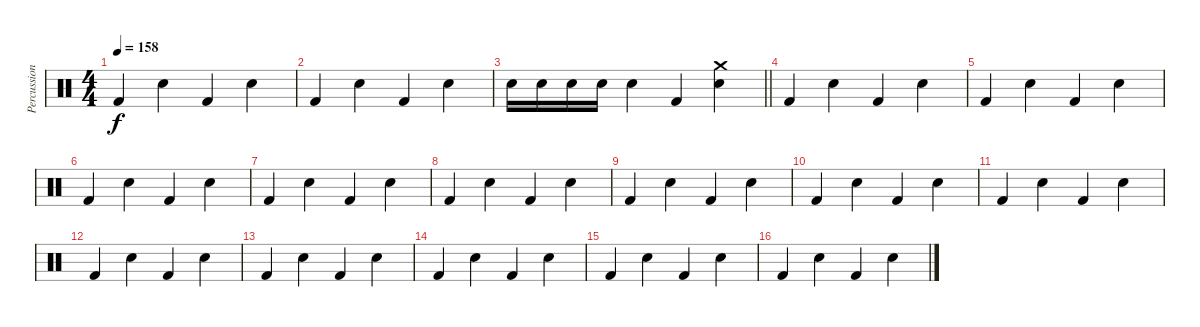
\track ("Percussions" "Percussion") {instrument percussion}
\staff {score}
\articulation defaults
\ts (4 4)
\tempo 158
\clef neutral
\ks c "Kick (hit) 2".4{dy f} "Electric Snare (hit)".4 "Kick (hit) 2".4 "Electric Snare (hit)".4
|
"Kick (hit) 2".4{volume 16} "Electric Snare (hit)".4 "Kick (hit) 2".4 "Electric Snare (hit)".4 |
\barLineRight lightlight "Electric Snare (hit)".16 "Electric Snare (hit)".16 "Electric Snare (hit)".16 "Electric Snare (hit)".16 "Electric Snare (hit)".4 "Kick (hit) 2".4
("Crash medium (hit)" "Electric Snare (hit)").4 |
"Kick (hit) 2".4{volume 16} "Electric Snare (hit)".4 "Kick (hit) 2".4 "Electric Snare (hit)".4 |
"Kick (hit) 2".4 "Electric Snare (hit)".4 "Kick (hit) 2".4 "Electric Snare (hit)".4 |
"Kick (hit) 2".4{volume 16} "Electric Snare (hit)".4 "Kick (hit) 2".4 "Electric Snare (hit)".4 |
"Kick (hit) 2".4 "Electric Snare (hit)".4 "Kick (hit) 2".4 "Electric Snare (hit)".4 |
"Kick (hit) 2".4{volume 16} "Electric Snare (hit)".4 "Kick (hit) 2".4 "Electric Snare (hit)".4 |
"Kick (hit) 2".4 "Electric Snare (hit)".4 "Kick (hit) 2".4 "Electric Snare (hit)".4 |
"Kick (hit) 2".4{volume 16} "Electric Snare (hit)".4 "Kick (hit) 2".4 "Electric Snare (hit)".4 |
"Kick (hit) 2".4 "Electric Snare (hit)".4 "Kick (hit) 2".4 "Electric Snare (hit)".4 |
"Kick (hit) 2".4{volume 16} "Electric Snare (hit)".4 "Kick (hit) 2".4 "Electric Snare (hit)".4 |
"Kick (hit) 2".4 "Electric Snare (hit)".4 "Kick (hit) 2".4 "Electric Snare (hit)".4 |
"Kick (hit) 2".4{volume 16} "Electric Snare (hit)".4 "Kick (hit) 2".4 "Electric Snare (hit)".4 |
"Kick (hit) 2".4 "Electric Snare (hit)".4 "Kick (hit) 2".4 "Electric Snare (hit)".4 |
"Kick (hit) 2".4{volume 16} "Electric Snare (hit)".4 "Kick (hit) 2".4 "Electric Snare (hit)".4
